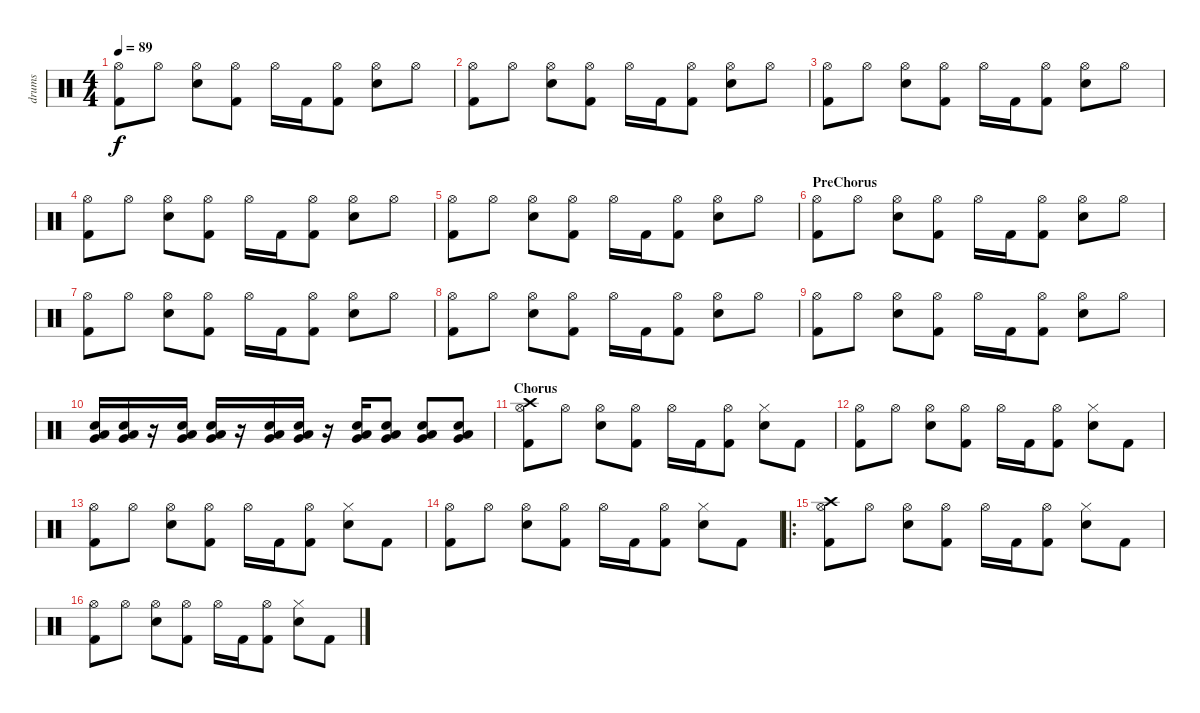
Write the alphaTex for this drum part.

\track ("drums" "drums") {instrument percussion}
\staff {score}
\articulation defaults
\ts (4 4)
\tempo 89
\clef neutral
\ks c
("Hi-Hat (open)" "Kick (hit) 2").8{dy f} "Hi-Hat (open)".8 ("Hi-Hat (open)" "Electric Snare (hit)").8 ("Hi-Hat (open)" "Kick (hit) 2").8 "Hi-Hat (open)".16 "Kick (hit) 2".16 ("Hi-Hat (open)" "Kick (hit) 2").8 ("Hi-Hat (open)" "Electric Snare (hit)").8 "Hi-Hat (open)".8 |
("Hi-Hat (open)" "Kick (hit) 2").8 "Hi-Hat (open)".8 ("Hi-Hat (open)" "Electric Snare (hit)").8 ("Hi-Hat (open)" "Kick (hit) 2").8 "Hi-Hat (open)".16 "Kick (hit) 2".16 ("Hi-Hat (open)" "Kick (hit) 2").8 ("Hi-Hat (open)" "Electric Snare (hit)").8 "Hi-Hat (open)".8 |
("Hi-Hat (open)" "Kick (hit) 2").8 "Hi-Hat (open)".8 ("Hi-Hat (open)" "Electric Snare (hit)").8 ("Hi-Hat (open)" "Kick (hit) 2").8 "Hi-Hat (open)".16 "Kick (hit) 2".16 ("Hi-Hat (open)" "Kick (hit) 2").8 ("Hi-Hat (open)" "Electric Snare (hit)").8 "Hi-Hat (open)".8 |
("Hi-Hat (open)" "Kick (hit) 2").8 "Hi-Hat (open)".8 ("Hi-Hat (open)" "Electric Snare (hit)").8 ("Hi-Hat (open)" "Kick (hit) 2").8 "Hi-Hat (open)".16 "Kick (hit) 2".16 ("Hi-Hat (open)" "Kick (hit) 2").8 ("Hi-Hat (open)" "Electric Snare (hit)").8 "Hi-Hat (open)".8 |
("Hi-Hat (open)" "Kick (hit) 2").8 "Hi-Hat (open)".8 ("Hi-Hat (open)" "Electric Snare (hit)").8 ("Hi-Hat (open)" "Kick (hit) 2").8 "Hi-Hat (open)".16 "Kick (hit) 2".16 ("Hi-Hat (open)" "Kick (hit) 2").8 ("Hi-Hat (open)" "Electric Snare (hit)").8 "Hi-Hat (open)".8 |
\section ("" "PreChorus")
("Hi-Hat (open)" "Kick (hit) 2").8 "Hi-Hat (open)".8 ("Hi-Hat (open)" "Electric Snare (hit)").8 ("Hi-Hat (open)" "Kick (hit) 2").8 "Hi-Hat (open)".16 "Kick (hit) 2".16 ("Hi-Hat (open)" "Kick (hit) 2").8 ("Hi-Hat (open)" "Electric Snare (hit)").8 "Hi-Hat (open)".8 |
("Hi-Hat (open)" "Kick (hit) 2").8 "Hi-Hat (open)".8 ("Hi-Hat (open)" "Electric Snare (hit)").8 ("Hi-Hat (open)" "Kick (hit) 2").8 "Hi-Hat (open)".16 "Kick (hit) 2".16 ("Hi-Hat (open)" "Kick (hit) 2").8 ("Hi-Hat (open)" "Electric Snare (hit)").8 "Hi-Hat (open)".8 |
("Hi-Hat (open)" "Kick (hit) 2").8 "Hi-Hat (open)".8 ("Hi-Hat (open)" "Electric Snare (hit)").8 ("Hi-Hat (open)" "Kick (hit) 2").8 "Hi-Hat (open)".16 "Kick (hit) 2".16 ("Hi-Hat (open)" "Kick (hit) 2").8 ("Hi-Hat (open)" "Electric Snare (hit)").8 "Hi-Hat (open)".8 |
("Hi-Hat (open)" "Kick (hit) 2").8 "Hi-Hat (open)".8 ("Hi-Hat (open)" "Electric Snare (hit)").8 ("Hi-Hat (open)" "Kick (hit) 2").8 "Hi-Hat (open)".16 "Kick (hit) 2".16 ("Hi-Hat (open)" "Kick (hit) 2").8 ("Hi-Hat (open)" "Electric Snare (hit)").8 "Hi-Hat (open)".8 |
("Low Tom (hit)" "Very Low Tom (hit)" "Electric Snare (hit)").16 ("Low Tom (hit)" "Very Low Tom (hit)" "Electric Snare (hit)").16 r.16 ("Low Tom (hit)" "Very Low Tom (hit)" "Electric Snare (hit)").16 ("Low Tom (hit)" "Very Low Tom (hit)" "Electric Snare (hit)").16 r.16 ("Low Tom (hit)" "Very Low Tom (hit)" "Electric Snare (hit)").16 ("Low Tom (hit)" "Very Low Tom (hit)" "Electric Snare (hit)").16 r.16 ("Low Tom (hit)" "Very Low Tom (hit)" "Electric Snare (hit)").16 ("Low Tom (hit)" "Very Low Tom (hit)" "Electric Snare (hit)").8 ("Low Tom (hit)" "Very Low Tom (hit)" "Electric Snare (hit)").8 ("Low Tom (hit)" "Very Low Tom (hit)" "Electric Snare (hit)").8 |
\section ("" "Chorus")
("Crash high (hit)" "Hi-Hat (open)" "Kick (hit) 2").8 "Hi-Hat (open)".8 ("Hi-Hat (open)" "Electric Snare (hit)").8 ("Hi-Hat (open)" "Kick (hit) 2").8 "Hi-Hat (open)".16 "Kick (hit) 2".16 ("Hi-Hat (open)" "Kick (hit) 2").8 ("Hi-Hat (closed)" "Electric Snare (hit)").8 "Kick (hit) 2".8 |
("Hi-Hat (open)" "Kick (hit) 2").8 "Hi-Hat (open)".8 ("Hi-Hat (open)" "Electric Snare (hit)").8 ("Hi-Hat (open)" "Kick (hit) 2").8 "Hi-Hat (open)".16 "Kick (hit) 2".16 ("Hi-Hat (open)" "Kick (hit) 2").8 ("Hi-Hat (closed)" "Electric Snare (hit)").8 "Kick (hit) 2".8 |
("Hi-Hat (open)" "Kick (hit) 2").8 "Hi-Hat (open)".8 ("Hi-Hat (open)" "Electric Snare (hit)").8 ("Hi-Hat (open)" "Kick (hit) 2").8 "Hi-Hat (open)".16 "Kick (hit) 2".16 ("Hi-Hat (open)" "Kick (hit) 2").8 ("Hi-Hat (closed)" "Electric Snare (hit)").8 "Kick (hit) 2".8 |
("Hi-Hat (open)" "Kick (hit) 2").8 "Hi-Hat (open)".8 ("Hi-Hat (open)" "Electric Snare (hit)").8 ("Hi-Hat (open)" "Kick (hit) 2").8 "Hi-Hat (open)".16 "Kick (hit) 2".16 ("Hi-Hat (open)" "Kick (hit) 2").8 ("Hi-Hat (closed)" "Electric Snare (hit)").8 "Kick (hit) 2".8 |
\ro
("Crash high (hit)" "Hi-Hat (open)" "Kick (hit) 2").8 "Hi-Hat (open)".8 ("Hi-Hat (open)" "Electric Snare (hit)").8 ("Hi-Hat (open)" "Kick (hit) 2").8 "Hi-Hat (open)".16 "Kick (hit) 2".16 ("Hi-Hat (open)" "Kick (hit) 2").8 ("Hi-Hat (closed)" "Electric Snare (hit)").8 "Kick (hit) 2".8 |
("Hi-Hat (open)" "Kick (hit) 2").8 "Hi-Hat (open)".8 ("Hi-Hat (open)" "Electric Snare (hit)").8 ("Hi-Hat (open)" "Kick (hit) 2").8 "Hi-Hat (open)".16 "Kick (hit) 2".16 ("Hi-Hat (open)" "Kick (hit) 2").8 ("Hi-Hat (closed)" "Electric Snare (hit)").8 "Kick (hit) 2".8
